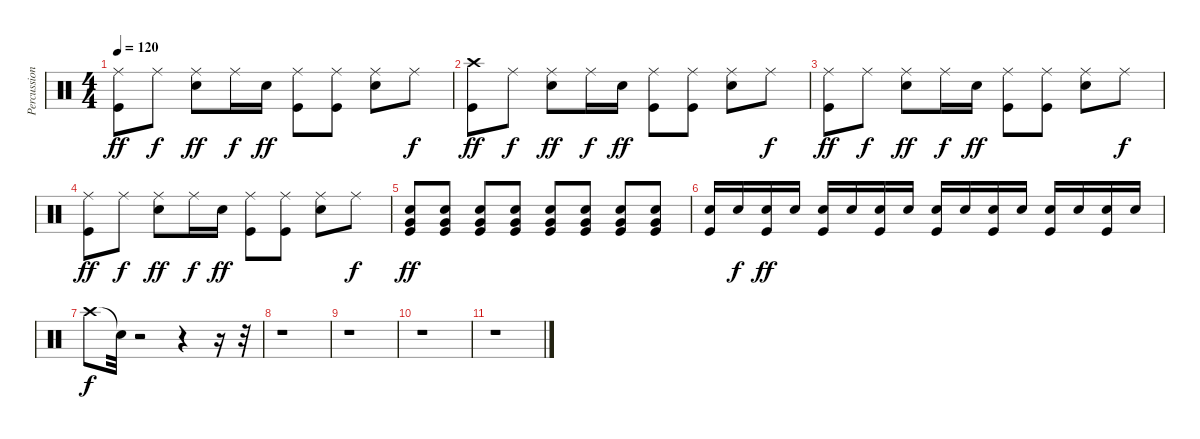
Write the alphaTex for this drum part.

\track ("Percussion" "Percussion") {instrument percussion}
\staff {score}
\articulation defaults
\ts (4 4)
\tempo 120
\clef neutral
\ks c
("Ride (middle)" "Kick (hit)").8{dy ff} "Ride (middle)".8{dy f} ("Ride (middle)" "Snare (hit) 2").8{dy ff} "Ride (middle)".16{dy f} "Snare (hit) 2".16{dy ff} ("Ride (middle)" "Kick (hit)").8 ("Ride (middle)" "Kick (hit)").8 ("Ride (middle)" "Snare (hit) 2").8 "Ride (middle)".8{dy f} |
("Crash high (hit)" "Kick (hit)").8{dy ff} "Ride (middle)".8{dy f} ("Ride (middle)" "Snare (hit) 2").8{dy ff} "Ride (middle)".16{dy f} "Snare (hit) 2".16{dy ff} ("Ride (middle)" "Kick (hit)").8 ("Ride (middle)" "Kick (hit)").8 ("Ride (middle)" "Snare (hit) 2").8 "Ride (middle)".8{dy f} |
("Ride (middle)" "Kick (hit)").8{dy ff} "Ride (middle)".8{dy f} ("Ride (middle)" "Snare (hit) 2").8{dy ff} "Ride (middle)".16{dy f} "Snare (hit) 2".16{dy ff} ("Ride (middle)" "Kick (hit)").8 ("Ride (middle)" "Kick (hit)").8 ("Ride (middle)" "Snare (hit) 2").8 "Ride (middle)".8{dy f} |
("Ride (middle)" "Kick (hit)").8{dy ff} "Ride (middle)".8{dy f} ("Ride (middle)" "Snare (hit) 2").8{dy ff} "Ride (middle)".16{dy f} "Snare (hit) 2".16{dy ff} ("Ride (middle)" "Kick (hit)").8 ("Ride (middle)" "Kick (hit)").8 ("Ride (middle)" "Snare (hit) 2").8 "Ride (middle)".8{dy f} |
("Snare (hit) 2" "Very Low Tom (hit)" "Kick (hit)").8{dy ff} ("Snare (hit) 2" "Very Low Tom (hit)" "Kick (hit)").8 ("Snare (hit) 2" "Very Low Tom (hit)" "Kick (hit)").8 ("Snare (hit) 2" "Very Low Tom (hit)" "Kick (hit)").8 ("Snare (hit) 2" "Very Low Tom (hit)" "Kick (hit)").8 ("Snare (hit) 2" "Very Low Tom (hit)" "Kick (hit)").8 ("Snare (hit) 2" "Very Low Tom (hit)" "Kick (hit)").8 ("Snare (hit) 2" "Very Low Tom (hit)" "Kick (hit)").8 |
("Snare (hit) 2" "Kick (hit)").16 "Snare (hit) 2".16{dy f} ("Snare (hit) 2" "Kick (hit)").16{dy ff} "Snare (hit) 2".16 ("Snare (hit) 2" "Kick (hit)").16 "Snare (hit) 2".16 ("Snare (hit) 2" "Kick (hit)").16 "Snare (hit) 2".16 ("Snare (hit) 2" "Kick (hit)").16 "Snare (hit) 2".16 ("Snare (hit) 2" "Kick (hit)").16 "Snare (hit) 2".16 ("Snare (hit) 2" "Kick (hit)").16 "Snare (hit) 2".16 ("Snare (hit) 2" "Kick (hit)").16 "Snare (hit) 2".16 |
"Crash high (hit)".8{dy f} "Snare (hit)"{t}.32 r.2 r.4 r.16 r.32 |
r.1 |
r.1 |
r.1 |
r.1
